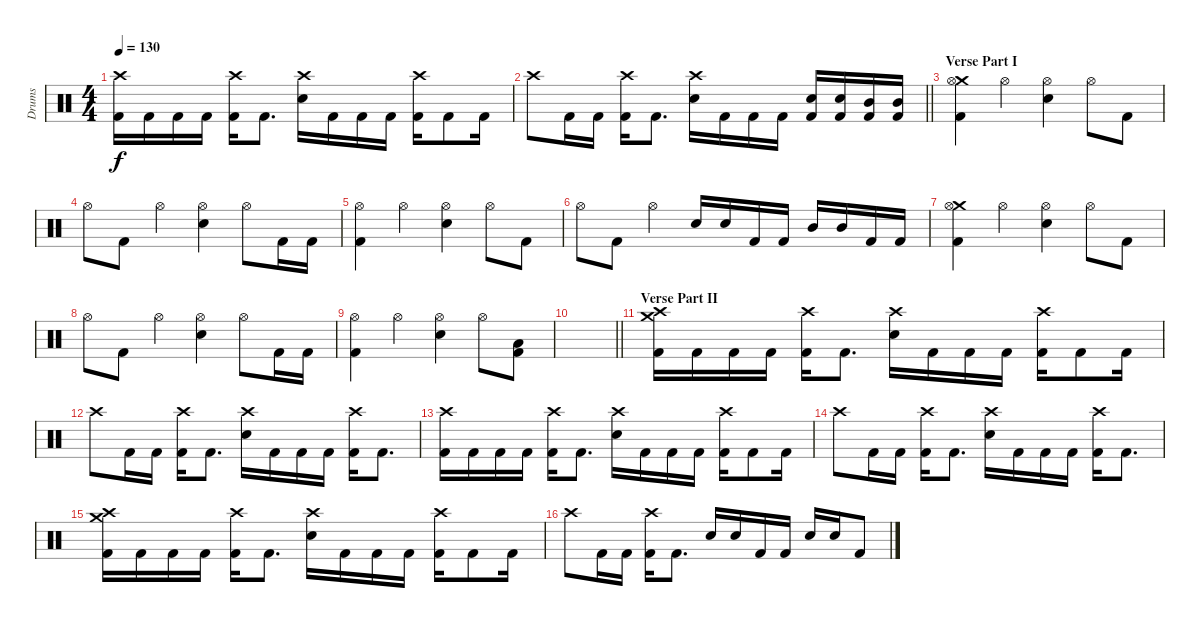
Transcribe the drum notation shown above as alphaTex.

\track ("Drums" "Drums") {instrument percussion}
\staff {score}
\articulation defaults
\ts (4 4)
\tempo 130
\clef neutral
\ks c
("Crash high (hit)" "Kick (hit) 2").16{dy f} "Kick (hit) 2".16 "Kick (hit) 2".16 "Kick (hit) 2".16 ("Crash high (hit)" "Kick (hit) 2").16 "Kick (hit) 2".8{d} ("Crash high (hit)" "Electric Snare (hit)").16 "Kick (hit) 2".16 "Kick (hit) 2".16 "Kick (hit) 2".16 ("Crash high (hit)" "Kick (hit) 2").16 "Kick (hit) 2".8 "Kick (hit) 2".16 |
\barLineRight lightlight "Crash high (hit)".8 "Kick (hit) 2".16 "Kick (hit) 2".16
("Crash high (hit)" "Kick (hit) 2").16 "Kick (hit) 2".8{d} ("Crash high (hit)" "Electric Snare (hit)").16 "Kick (hit) 2".16 "Kick (hit) 2".16 "Kick (hit) 2".16 ("Electric Snare (hit)" "Kick (hit) 2").16 ("Electric Snare (hit)" "Kick (hit) 2").16 ("Mid Tom (hit)" "Kick (hit) 2").16 ("Mid Tom (hit)" "Kick (hit) 2").16 |
\section ("" "Verse Part I")
("Crash medium (hit)" "Hi-Hat (open)" "Kick (hit) 2").4 "Hi-Hat (open)".4 ("Hi-Hat (open)" "Electric Snare (hit)").4 "Hi-Hat (open)".8 "Kick (hit) 2".8 |
"Hi-Hat (open)".8 "Kick (hit) 2".8 "Hi-Hat (open)".4 ("Hi-Hat (open)" "Electric Snare (hit)").4 "Hi-Hat (open)".8 "Kick (hit) 2".16 "Kick (hit) 2".16 |
("Hi-Hat (open)" "Kick (hit) 2").4 "Hi-Hat (open)".4 ("Hi-Hat (open)" "Electric Snare (hit)").4 "Hi-Hat (open)".8 "Kick (hit) 2".8 |
"Hi-Hat (open)".8 "Kick (hit) 2".8 "Hi-Hat (open)".4 "Electric Snare (hit)".16 "Electric Snare (hit)".16 "Kick (hit) 2".16 "Kick (hit) 2".16 "Mid Tom (hit)".16 "Mid Tom (hit)".16 "Kick (hit) 2".16 "Kick (hit) 2".16 |
("Crash medium (hit)" "Hi-Hat (open)" "Kick (hit) 2").4 "Hi-Hat (open)".4 ("Hi-Hat (open)" "Electric Snare (hit)").4 "Hi-Hat (open)".8 "Kick (hit) 2".8 |
"Hi-Hat (open)".8 "Kick (hit) 2".8 "Hi-Hat (open)".4 ("Hi-Hat (open)" "Electric Snare (hit)").4 "Hi-Hat (open)".8 "Kick (hit) 2".16 "Kick (hit) 2".16 |
("Hi-Hat (open)" "Kick (hit) 2").4 "Hi-Hat (open)".4 ("Hi-Hat (open)" "Electric Snare (hit)").4 "Hi-Hat (open)".8 ("Low Floor Tom (hit)" "Kick (hit) 2").8 |
\barLineRight lightlight
|
\section ("" "Verse Part II")
("Crash high (hit)" "Crash medium (hit)" "Kick (hit) 2").16 "Kick (hit) 2".16 "Kick (hit) 2".16 "Kick (hit) 2".16 ("Crash high (hit)" "Kick (hit) 2").16 "Kick (hit) 2".8{d} ("Crash high (hit)" "Electric Snare (hit)").16 "Kick (hit) 2".16 "Kick (hit) 2".16 "Kick (hit) 2".16 ("Crash high (hit)" "Kick (hit) 2").16 "Kick (hit) 2".8 "Kick (hit) 2".16 |
"Crash high (hit)".8 "Kick (hit) 2".16 "Kick (hit) 2".16 ("Crash high (hit)" "Kick (hit) 2").16 "Kick (hit) 2".8{d} ("Crash high (hit)" "Electric Snare (hit)").16 "Kick (hit) 2".16 "Kick (hit) 2".16 "Kick (hit) 2".16 ("Crash high (hit)" "Kick (hit) 2").16 "Kick (hit) 2".8{d} |
("Crash high (hit)" "Kick (hit) 2").16 "Kick (hit) 2".16 "Kick (hit) 2".16 "Kick (hit) 2".16 ("Crash high (hit)" "Kick (hit) 2").16 "Kick (hit) 2".8{d} ("Crash high (hit)" "Electric Snare (hit)").16 "Kick (hit) 2".16 "Kick (hit) 2".16 "Kick (hit) 2".16 ("Crash high (hit)" "Kick (hit) 2").16 "Kick (hit) 2".8 "Kick (hit) 2".16 |
"Crash high (hit)".8 "Kick (hit) 2".16 "Kick (hit) 2".16 ("Crash high (hit)" "Kick (hit) 2").16 "Kick (hit) 2".8{d} ("Crash high (hit)" "Electric Snare (hit)").16 "Kick (hit) 2".16 "Kick (hit) 2".16 "Kick (hit) 2".16 ("Crash high (hit)" "Kick (hit) 2").16 "Kick (hit) 2".8{d} |
("Crash high (hit)" "Crash medium (hit)" "Kick (hit) 2").16 "Kick (hit) 2".16 "Kick (hit) 2".16 "Kick (hit) 2".16 ("Crash high (hit)" "Kick (hit) 2").16 "Kick (hit) 2".8{d} ("Crash high (hit)" "Electric Snare (hit)").16 "Kick (hit) 2".16 "Kick (hit) 2".16 "Kick (hit) 2".16 ("Crash high (hit)" "Kick (hit) 2").16 "Kick (hit) 2".8 "Kick (hit) 2".16 |
"Crash high (hit)".8 "Kick (hit) 2".16 "Kick (hit) 2".16 ("Crash high (hit)" "Kick (hit) 2").16 "Kick (hit) 2".8{d} "Electric Snare (hit)".16 "Electric Snare (hit)".16 "Kick (hit) 2".16 "Kick (hit) 2".16 "Electric Snare (hit)".16 "Electric Snare (hit)".16 "Kick (hit) 2".8
